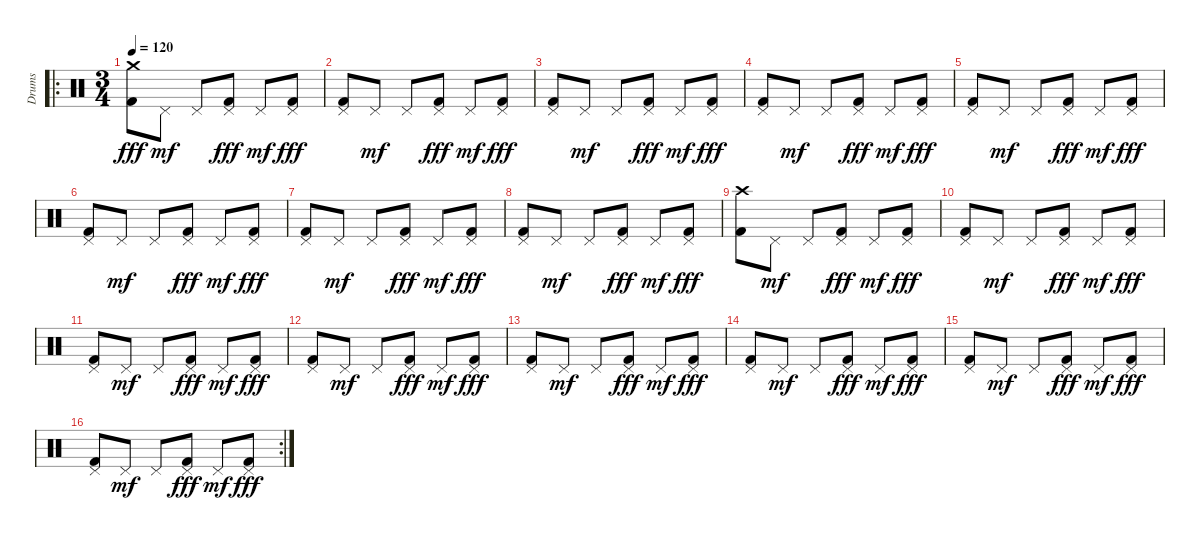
\track ("Drums" "Drums") {instrument percussion}
\staff {score}
\articulation defaults
\ro
\ts (3 4)
\tempo 120
\clef neutral
\ks c
("Crash medium (hit)" "Kick (hit) 2").8{dy fff} "Pedal Hi-Hat (hit)".8{dy mf} "Pedal Hi-Hat (hit)".8 ("Pedal Hi-Hat (hit)" "Kick (hit) 2").8{dy fff} "Pedal Hi-Hat (hit)".8{dy mf} ("Pedal Hi-Hat (hit)" "Kick (hit) 2").8{dy fff} |
("Pedal Hi-Hat (hit)" "Kick (hit) 2").8 "Pedal Hi-Hat (hit)".8{dy mf} "Pedal Hi-Hat (hit)".8 ("Pedal Hi-Hat (hit)" "Kick (hit) 2").8{dy fff} "Pedal Hi-Hat (hit)".8{dy mf} ("Pedal Hi-Hat (hit)" "Kick (hit) 2").8{dy fff} |
("Pedal Hi-Hat (hit)" "Kick (hit) 2").8 "Pedal Hi-Hat (hit)".8{dy mf} "Pedal Hi-Hat (hit)".8 ("Pedal Hi-Hat (hit)" "Kick (hit) 2").8{dy fff} "Pedal Hi-Hat (hit)".8{dy mf} ("Pedal Hi-Hat (hit)" "Kick (hit) 2").8{dy fff} |
("Pedal Hi-Hat (hit)" "Kick (hit) 2").8 "Pedal Hi-Hat (hit)".8{dy mf} "Pedal Hi-Hat (hit)".8 ("Pedal Hi-Hat (hit)" "Kick (hit) 2").8{dy fff} "Pedal Hi-Hat (hit)".8{dy mf} ("Pedal Hi-Hat (hit)" "Kick (hit) 2").8{dy fff} |
("Pedal Hi-Hat (hit)" "Kick (hit) 2").8 "Pedal Hi-Hat (hit)".8{dy mf} "Pedal Hi-Hat (hit)".8 ("Pedal Hi-Hat (hit)" "Kick (hit) 2").8{dy fff} "Pedal Hi-Hat (hit)".8{dy mf} ("Pedal Hi-Hat (hit)" "Kick (hit) 2").8{dy fff} |
("Pedal Hi-Hat (hit)" "Kick (hit) 2").8 "Pedal Hi-Hat (hit)".8{dy mf} "Pedal Hi-Hat (hit)".8 ("Pedal Hi-Hat (hit)" "Kick (hit) 2").8{dy fff} "Pedal Hi-Hat (hit)".8{dy mf} ("Pedal Hi-Hat (hit)" "Kick (hit) 2").8{dy fff} |
("Pedal Hi-Hat (hit)" "Kick (hit) 2").8 "Pedal Hi-Hat (hit)".8{dy mf} "Pedal Hi-Hat (hit)".8 ("Pedal Hi-Hat (hit)" "Kick (hit) 2").8{dy fff} "Pedal Hi-Hat (hit)".8{dy mf} ("Pedal Hi-Hat (hit)" "Kick (hit) 2").8{dy fff} |
("Pedal Hi-Hat (hit)" "Kick (hit) 2").8 "Pedal Hi-Hat (hit)".8{dy mf} "Pedal Hi-Hat (hit)".8 ("Pedal Hi-Hat (hit)" "Kick (hit) 2").8{dy fff} "Pedal Hi-Hat (hit)".8{dy mf} ("Pedal Hi-Hat (hit)" "Kick (hit) 2").8{dy fff} |
("Crash high (hit)" "Kick (hit) 2").8 "Pedal Hi-Hat (hit)".8{dy mf} "Pedal Hi-Hat (hit)".8 ("Pedal Hi-Hat (hit)" "Kick (hit) 2").8{dy fff} "Pedal Hi-Hat (hit)".8{dy mf} ("Pedal Hi-Hat (hit)" "Kick (hit) 2").8{dy fff} |
("Pedal Hi-Hat (hit)" "Kick (hit) 2").8 "Pedal Hi-Hat (hit)".8{dy mf} "Pedal Hi-Hat (hit)".8 ("Pedal Hi-Hat (hit)" "Kick (hit) 2").8{dy fff} "Pedal Hi-Hat (hit)".8{dy mf} ("Pedal Hi-Hat (hit)" "Kick (hit) 2").8{dy fff} |
("Pedal Hi-Hat (hit)" "Kick (hit) 2").8 "Pedal Hi-Hat (hit)".8{dy mf} "Pedal Hi-Hat (hit)".8 ("Pedal Hi-Hat (hit)" "Kick (hit) 2").8{dy fff} "Pedal Hi-Hat (hit)".8{dy mf} ("Pedal Hi-Hat (hit)" "Kick (hit) 2").8{dy fff} |
("Pedal Hi-Hat (hit)" "Kick (hit) 2").8 "Pedal Hi-Hat (hit)".8{dy mf} "Pedal Hi-Hat (hit)".8 ("Pedal Hi-Hat (hit)" "Kick (hit) 2").8{dy fff} "Pedal Hi-Hat (hit)".8{dy mf} ("Pedal Hi-Hat (hit)" "Kick (hit) 2").8{dy fff} |
("Pedal Hi-Hat (hit)" "Kick (hit) 2").8 "Pedal Hi-Hat (hit)".8{dy mf} "Pedal Hi-Hat (hit)".8 ("Pedal Hi-Hat (hit)" "Kick (hit) 2").8{dy fff} "Pedal Hi-Hat (hit)".8{dy mf} ("Pedal Hi-Hat (hit)" "Kick (hit) 2").8{dy fff} |
("Pedal Hi-Hat (hit)" "Kick (hit) 2").8 "Pedal Hi-Hat (hit)".8{dy mf} "Pedal Hi-Hat (hit)".8 ("Pedal Hi-Hat (hit)" "Kick (hit) 2").8{dy fff} "Pedal Hi-Hat (hit)".8{dy mf} ("Pedal Hi-Hat (hit)" "Kick (hit) 2").8{dy fff} |
("Pedal Hi-Hat (hit)" "Kick (hit) 2").8 "Pedal Hi-Hat (hit)".8{dy mf} "Pedal Hi-Hat (hit)".8 ("Pedal Hi-Hat (hit)" "Kick (hit) 2").8{dy fff} "Pedal Hi-Hat (hit)".8{dy mf} ("Pedal Hi-Hat (hit)" "Kick (hit) 2").8{dy fff} |
\rc 2
("Pedal Hi-Hat (hit)" "Kick (hit) 2").8 "Pedal Hi-Hat (hit)".8{dy mf} "Pedal Hi-Hat (hit)".8 ("Pedal Hi-Hat (hit)" "Kick (hit) 2").8{dy fff} "Pedal Hi-Hat (hit)".8{dy mf} ("Pedal Hi-Hat (hit)" "Kick (hit) 2").8{dy fff}
